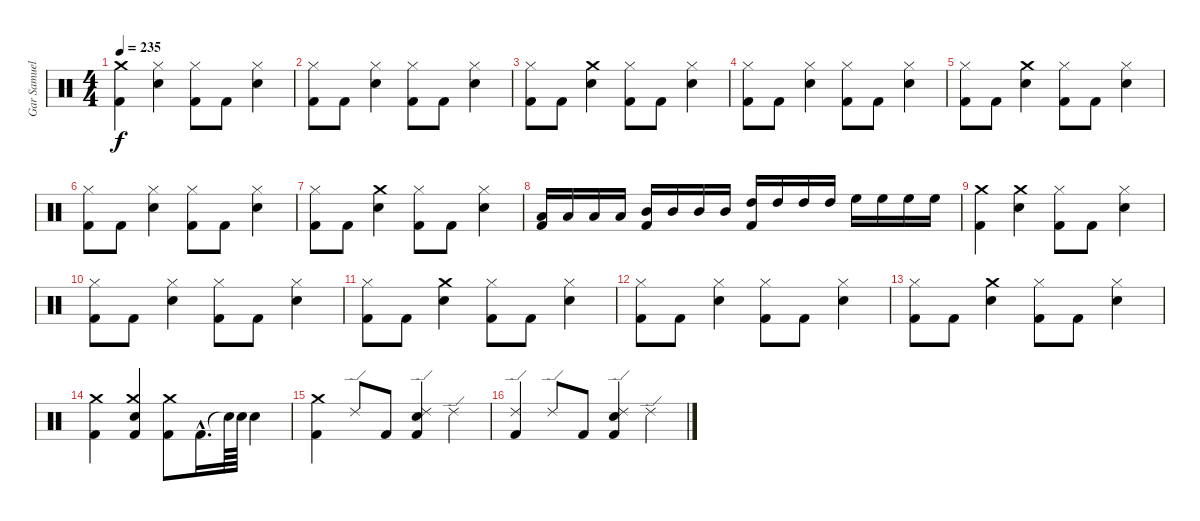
\track ("Gar Samuelson (Drums)" "Gar Samuel") {instrument percussion}
\staff {score}
\articulation defaults
\ts (4 4)
\tempo 235
\clef neutral
\ks c
("Kick (hit) 2" "Crash medium (hit)").4{dy f} ("Hi-Hat (closed)" "Snare (hit) 2").4 ("Hi-Hat (closed)" "Kick (hit) 2").8 "Kick (hit) 2".8 ("Snare (hit) 2" "Hi-Hat (closed)").4 |
("Kick (hit) 2" "Hi-Hat (closed)").8 "Kick (hit) 2".8 ("Snare (hit) 2" "Hi-Hat (closed)").4 ("Kick (hit) 2" "Hi-Hat (closed)").8 "Kick (hit) 2".8 ("Snare (hit) 2" "Hi-Hat (closed)").4 |
("Kick (hit) 2" "Hi-Hat (closed)").8 "Kick (hit) 2".8 ("Crash medium (hit)" "Snare (hit) 2").4 ("Kick (hit) 2" "Hi-Hat (closed)").8 "Kick (hit) 2".8 ("Snare (hit) 2" "Hi-Hat (closed)").4 |
("Kick (hit) 2" "Hi-Hat (closed)").8 "Kick (hit) 2".8 ("Snare (hit) 2" "Hi-Hat (closed)").4 ("Kick (hit) 2" "Hi-Hat (closed)").8 "Kick (hit) 2".8 ("Snare (hit) 2" "Hi-Hat (closed)").4 |
("Kick (hit) 2" "Hi-Hat (closed)").8 "Kick (hit) 2".8 ("Crash medium (hit)" "Snare (hit) 2").4 ("Kick (hit) 2" "Hi-Hat (closed)").8 "Kick (hit) 2".8 ("Snare (hit) 2" "Hi-Hat (closed)").4 |
("Kick (hit) 2" "Hi-Hat (closed)").8 "Kick (hit) 2".8 ("Snare (hit) 2" "Hi-Hat (closed)").4 ("Kick (hit) 2" "Hi-Hat (closed)").8 "Kick (hit) 2".8 ("Snare (hit) 2" "Hi-Hat (closed)").4 |
("Kick (hit) 2" "Hi-Hat (closed)").8 "Kick (hit) 2".8 ("Crash medium (hit)" "Snare (hit) 2").4 ("Kick (hit) 2" "Hi-Hat (closed)").8 "Kick (hit) 2".8 ("Snare (hit) 2" "Hi-Hat (closed)").4 |
("Low Tom (hit)" "Kick (hit) 2").16 "Low Tom (hit)".16 "Low Tom (hit)".16 "Low Tom (hit)".16 ("Mid Tom (hit)" "Kick (hit) 2").16 "Mid Tom (hit)".16 "Mid Tom (hit)".16 "Mid Tom (hit)".16 ("High Tom (hit)" "Kick (hit) 2").16 "High Tom (hit)".16 "High Tom (hit)".16 "High Tom (hit)".16 "High Floor Tom (hit)".16 "High Floor Tom (hit)".16 "High Floor Tom (hit)".16 "High Floor Tom (hit)".16 |
("Kick (hit) 2" "Crash medium (hit)").4 ("Snare (hit) 2" "Crash medium (hit)").4 ("Hi-Hat (closed)" "Kick (hit) 2").8 "Kick (hit) 2".8 ("Hi-Hat (closed)" "Snare (hit) 2").4 |
("Kick (hit) 2" "Hi-Hat (closed)").8 "Kick (hit) 2".8 ("Snare (hit) 2" "Hi-Hat (closed)").4 ("Kick (hit) 2" "Hi-Hat (closed)").8 "Kick (hit) 2".8 ("Snare (hit) 2" "Hi-Hat (closed)").4 |
("Kick (hit) 2" "Hi-Hat (closed)").8 "Kick (hit) 2".8 ("Crash medium (hit)" "Snare (hit) 2").4 ("Kick (hit) 2" "Hi-Hat (closed)").8 "Kick (hit) 2".8 ("Snare (hit) 2" "Hi-Hat (closed)").4 |
("Kick (hit) 2" "Hi-Hat (closed)").8 "Kick (hit) 2".8 ("Snare (hit) 2" "Hi-Hat (closed)").4 ("Kick (hit) 2" "Hi-Hat (closed)").8 "Kick (hit) 2".8 ("Snare (hit) 2" "Hi-Hat (closed)").4 |
("Kick (hit) 2" "Hi-Hat (closed)").8 "Kick (hit) 2".8 ("Crash medium (hit)" "Snare (hit) 2").4 ("Kick (hit) 2" "Hi-Hat (closed)").8 "Kick (hit) 2".8 ("Snare (hit) 2" "Hi-Hat (closed)").4 |
("Kick (hit) 2" "Crash medium (hit)").4 ("Kick (hit) 2" "Snare (hit) 2" "Crash medium (hit)").4 ("Kick (hit) 2" "Crash medium (hit)").8 "Kick (hit) 2"{hac}.16{d} "Snare (hit)"{t}.64 "Snare (hit) 2".64 "Snare (hit) 2".4 |
("Kick (hit) 2" "Crash medium (hit)").4 "Ride (edge) 2".8 "Kick (hit) 2".8 ("Kick (hit) 2" "Snare (hit) 2" "Ride (edge) 2").4 "Ride (edge) 2".4 |
("Kick (hit) 2" "Ride (edge) 2").4 "Ride (edge) 2".8 "Kick (hit) 2".8 ("Kick (hit) 2" "Snare (hit) 2" "Ride (edge) 2").4 "Ride (edge) 2".4
